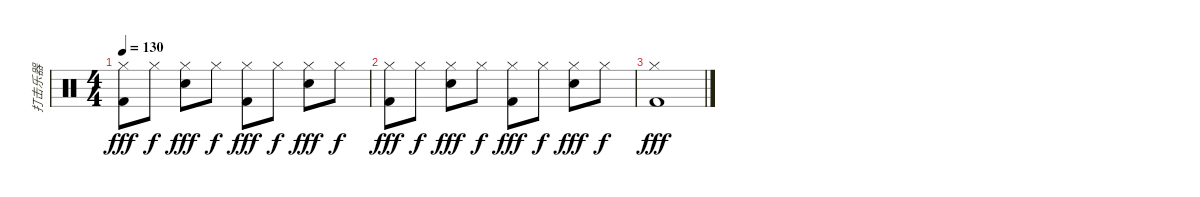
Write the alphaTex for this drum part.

\track ("打击乐器" "打击乐器") {instrument percussion}
\staff {score}
\articulation defaults
\ts (4 4)
\tempo 130
\clef neutral
\ks c
("Hi-Hat (closed)" "Kick (hit) 2").8{dy fff} "Hi-Hat (closed)".8{dy f} ("Hi-Hat (closed)" "Electric Snare (hit)").8{dy fff} "Hi-Hat (closed)".8{dy f} ("Hi-Hat (closed)" "Kick (hit) 2").8{dy fff} "Hi-Hat (closed)".8{dy f} ("Hi-Hat (closed)" "Electric Snare (hit)").8{dy fff} "Hi-Hat (closed)".8{dy f} |
("Hi-Hat (closed)" "Kick (hit) 2").8{dy fff} "Hi-Hat (closed)".8{dy f} ("Hi-Hat (closed)" "Electric Snare (hit)").8{dy fff} "Hi-Hat (closed)".8{dy f} ("Hi-Hat (closed)" "Kick (hit) 2").8{dy fff} "Hi-Hat (closed)".8{dy f} ("Hi-Hat (closed)" "Electric Snare (hit)").8{dy fff} "Hi-Hat (closed)".8{dy f} |
("Hi-Hat (closed)" "Kick (hit) 2").1{dy fff}
